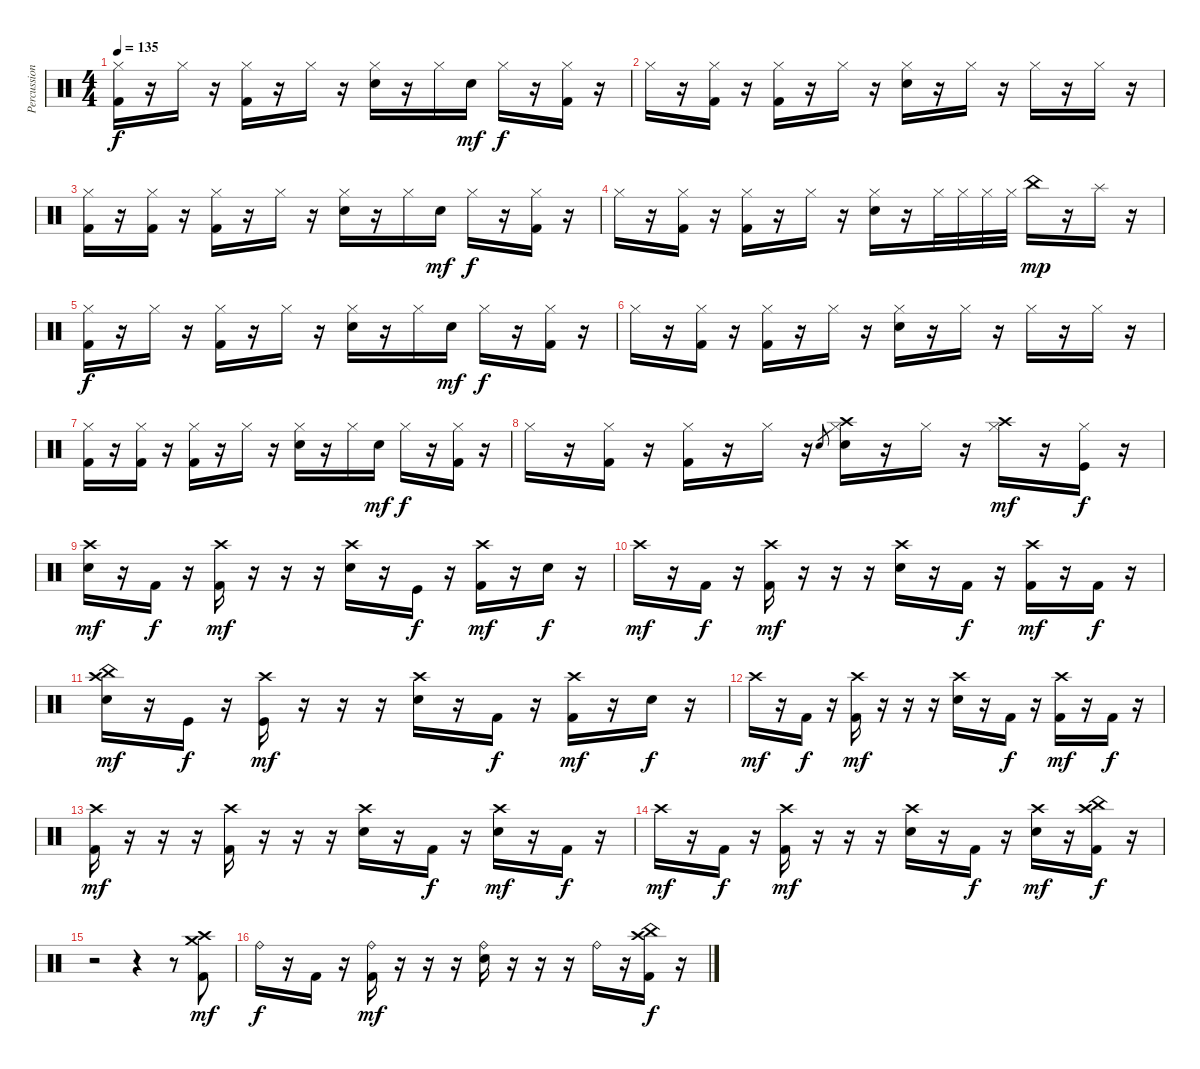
\track ("Percussion" "Percussion") {instrument percussion}
\staff {score}
\articulation defaults
\ts (4 4)
\tempo 135
\clef neutral
\ks c
("Hi-Hat (closed)" "Kick (hit) 2").16{dy f} r.16 "Hi-Hat (closed)".16 r.16 ("Hi-Hat (closed)" "Kick (hit) 2").16 r.16 "Hi-Hat (closed)".16 r.16 ("Hi-Hat (closed)" "Electric Snare (hit)").16 r.16 "Hi-Hat (closed)".16 "Electric Snare (hit)".16{dy mf} "Hi-Hat (closed)".16{dy f} r.16 ("Hi-Hat (closed)" "Kick (hit) 2").16 r.16 |
"Hi-Hat (closed)".16 r.16 ("Hi-Hat (closed)" "Kick (hit) 2").16 r.16 ("Hi-Hat (closed)" "Kick (hit) 2").16 r.16 "Hi-Hat (closed)".16 r.16 ("Hi-Hat (closed)" "Electric Snare (hit)").16 r.16 "Hi-Hat (closed)".16 r.16 "Hi-Hat (closed)".16 r.16 "Hi-Hat (closed)".16 r.16 |
("Hi-Hat (closed)" "Kick (hit) 2").16 r.16 ("Hi-Hat (closed)" "Kick (hit) 2").16 r.16 ("Hi-Hat (closed)" "Kick (hit) 2").16 r.16 "Hi-Hat (closed)".16 r.16 ("Hi-Hat (closed)" "Electric Snare (hit)").16 r.16 "Hi-Hat (closed)".16 "Electric Snare (hit)".16{dy mf} "Hi-Hat (closed)".16{dy f} r.16 ("Hi-Hat (closed)" "Kick (hit) 2").16 r.16 |
"Hi-Hat (closed)".16 r.16 ("Hi-Hat (closed)" "Kick (hit) 2").16 r.16 ("Hi-Hat (closed)" "Kick (hit) 2").16 r.16 "Hi-Hat (closed)".16 r.16 ("Hi-Hat (closed)" "Electric Snare (hit)").16 r.16 "Hi-Hat (closed)".32 "Hi-Hat (closed)".32 "Hi-Hat (closed)".32 "Hi-Hat (closed)".32 "China (hit)".16{dy mp} r.16 "Splash (hit)".16 r.16 |
("Hi-Hat (closed)" "Kick (hit) 2").16{dy f} r.16 "Hi-Hat (closed)".16 r.16 ("Hi-Hat (closed)" "Kick (hit) 2").16 r.16 "Hi-Hat (closed)".16 r.16 ("Hi-Hat (closed)" "Electric Snare (hit)").16 r.16 "Hi-Hat (closed)".16 "Electric Snare (hit)".16{dy mf} "Hi-Hat (closed)".16{dy f} r.16 ("Hi-Hat (closed)" "Kick (hit) 2").16 r.16 |
"Hi-Hat (closed)".16 r.16 ("Hi-Hat (closed)" "Kick (hit) 2").16 r.16 ("Hi-Hat (closed)" "Kick (hit) 2").16 r.16 "Hi-Hat (closed)".16 r.16 ("Hi-Hat (closed)" "Electric Snare (hit)").16 r.16 "Hi-Hat (closed)".16 r.16 "Hi-Hat (closed)".16 r.16 "Hi-Hat (closed)".16 r.16 |
("Hi-Hat (closed)" "Kick (hit) 2").16 r.16 ("Hi-Hat (closed)" "Kick (hit) 2").16 r.16 ("Hi-Hat (closed)" "Kick (hit) 2").16 r.16 "Hi-Hat (closed)".16 r.16 ("Hi-Hat (closed)" "Electric Snare (hit)").16 r.16 "Hi-Hat (closed)".16 "Electric Snare (hit)".16{dy mf} "Hi-Hat (closed)".16{dy f} r.16 ("Hi-Hat (closed)" "Kick (hit) 2").16 r.16 |
"Hi-Hat (closed)".16 r.16 ("Hi-Hat (closed)" "Kick (hit) 2").16 r.16 ("Hi-Hat (closed)" "Kick (hit) 2").16 r.16 "Hi-Hat (closed)".16 r.16 "Electric Snare (hit)".8{gr} ("Hi-Hat (closed)" "Crash high (hit)" "Electric Snare (hit)").16 r.16 "Hi-Hat (closed)".16 r.16 ("Hi-Hat (closed)" "Crash high (hit)").16{dy mf} r.16 ("Hi-Hat (closed)" "Kick (hit)").16{dy f} r.16 |
("Crash high (hit)" "Electric Snare (hit)").16{dy mf} r.16 "Kick (hit) 2".16{dy f} r.16 ("Crash high (hit)" "Kick (hit) 2").16{dy mf} r.16 r.16 r.16 ("Crash high (hit)" "Electric Snare (hit)").16 r.16 "Kick (hit)".16{dy f} r.16 ("Crash high (hit)" "Kick (hit) 2").16{dy mf} r.16 "Electric Snare (hit)".16{dy f} r.16 |
"Crash high (hit)".16{dy mf} r.16 "Kick (hit) 2".16{dy f} r.16 ("Crash high (hit)" "Kick (hit) 2").16{dy mf} r.16 r.16 r.16 ("Crash high (hit)" "Electric Snare (hit)").16 r.16 "Kick (hit) 2".16{dy f} r.16 ("Crash high (hit)" "Kick (hit) 2").16{dy mf} r.16 "Kick (hit) 2".16{dy f} r.16 |
("Crash high (hit)" "China (hit)" "Electric Snare (hit)").16{dy mf} r.16 "Kick (hit)".16{dy f} r.16 ("Crash high (hit)" "Kick (hit)").16{dy mf} r.16 r.16 r.16 ("Crash high (hit)" "Electric Snare (hit)").16 r.16 "Kick (hit) 2".16{dy f} r.16 ("Crash high (hit)" "Kick (hit) 2").16{dy mf} r.16 "Electric Snare (hit)".16{dy f} r.16 |
"Crash high (hit)".16{dy mf} r.16 "Kick (hit) 2".16{dy f} r.16 ("Crash high (hit)" "Kick (hit) 2").16{dy mf} r.16 r.16 r.16 ("Crash high (hit)" "Electric Snare (hit)").16 r.16 "Kick (hit) 2".16{dy f} r.16 ("Crash high (hit)" "Kick (hit) 2").16{dy mf} r.16 "Kick (hit) 2".16{dy f} r.16 |
("Crash high (hit)" "Kick (hit) 2").16{dy mf} r.16 r.16 r.16 ("Crash high (hit)" "Kick (hit) 2").16 r.16 r.16 r.16 ("Crash high (hit)" "Electric Snare (hit)").16 r.16 "Kick (hit) 2".16{dy f} r.16 ("Crash high (hit)" "Electric Snare (hit)").16{dy mf} r.16 "Kick (hit) 2".16{dy f} r.16 |
"Crash high (hit)".16{dy mf} r.16 "Kick (hit) 2".16{dy f} r.16 ("Crash high (hit)" "Kick (hit) 2").16{dy mf} r.16 r.16 r.16 ("Crash high (hit)" "Electric Snare (hit)").16 r.16 "Kick (hit) 2".16{dy f} r.16 ("Crash high (hit)" "Electric Snare (hit)").16{dy mf} r.16 ("Crash high (hit)" "China (hit)" "Kick (hit) 2").16{dy f} r.16 |
r.2 r.4 r.8 ("Crash high (hit)" "Crash medium (hit)" "Kick (hit) 2").8{dy mf} |
"Ride (bell)".16{dy f} r.16 "Kick (hit) 2".16 r.16 ("Ride (bell)" "Kick (hit) 2").16{dy mf} r.16 r.16 r.16 ("Ride (bell)" "Electric Snare (hit)").16 r.16 r.16 r.16 "Ride (bell)".16 r.16 ("Crash high (hit)" "China (hit)" "Kick (hit) 2").16{dy f} r.16
